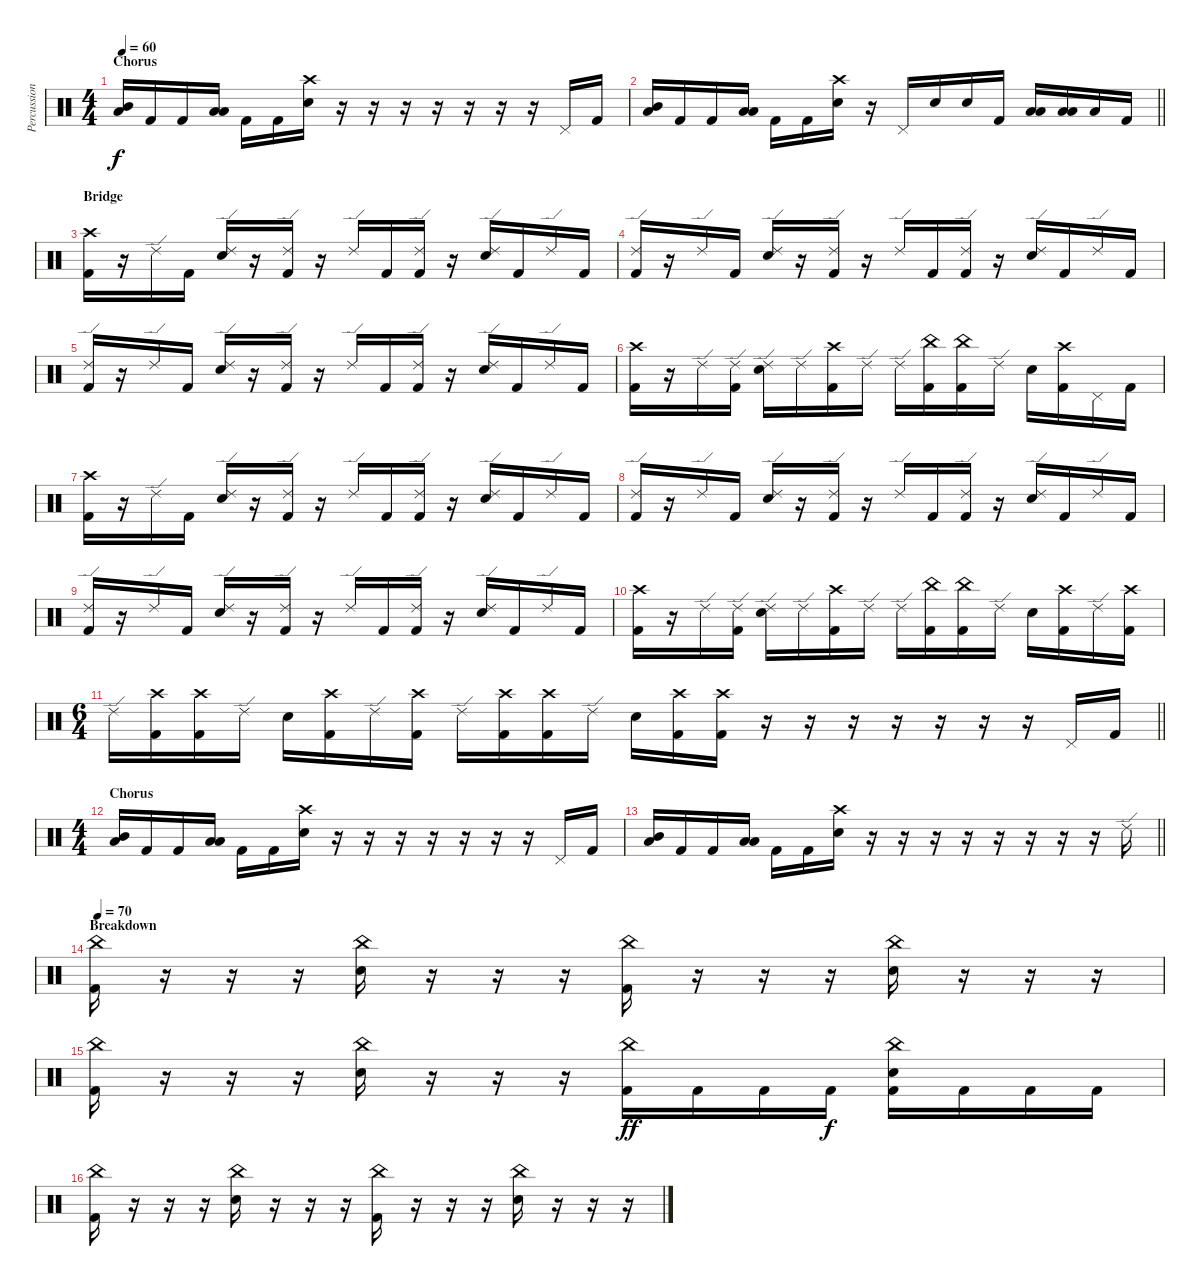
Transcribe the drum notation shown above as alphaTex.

\track ("Percussion" "Percussion") {instrument percussion}
\staff {score}
\articulation defaults
\ts (4 4)
\section ("" "Chorus")
\tempo 60
\clef neutral
\ks c
("Mid Tom (hit)" "Low Tom (hit)").16{dy f} "Kick (hit) 2".16 "Kick (hit) 2".16 ("Low Tom (hit)" "Low Floor Tom (hit)").16 "Kick (hit) 2".16 "Kick (hit) 2".16 ("Crash high (hit)" "Electric Snare (hit)").16 r.16 r.16 r.16 r.16 r.16 r.16 r.16 "Pedal Hi-Hat (hit)".16 "Kick (hit) 2".16 |
\barLineRight lightlight
("Mid Tom (hit)" "Low Tom (hit)").16 "Kick (hit) 2".16 "Kick (hit) 2".16 ("Low Tom (hit)" "Low Floor Tom (hit)").16 "Kick (hit) 2".16 "Kick (hit) 2".16 ("Crash high (hit)" "Electric Snare (hit)").16 r.16 "Pedal Hi-Hat (hit)".16 "Electric Snare (hit)".16 "Electric Snare (hit)".16 "Kick (hit) 2".16 ("Low Tom (hit)" "Low Floor Tom (hit)").16 ("Low Tom (hit)" "Low Floor Tom (hit)").16 "Low Floor Tom (hit)".16 "Kick (hit) 2".16 |
\section ("" "Bridge")
("Crash high (hit)" "Kick (hit) 2").16 r.16 "Ride (edge) 2".16 "Kick (hit) 2".16 ("Ride (edge) 2" "Electric Snare (hit)").16 r.16 ("Ride (edge) 2" "Kick (hit) 2").16 r.16 "Ride (edge) 2".16 "Kick (hit) 2".16 ("Ride (edge) 2" "Kick (hit) 2").16 r.16 ("Ride (edge) 2" "Electric Snare (hit)").16 "Kick (hit) 2".16 "Ride (edge) 2".16 "Kick (hit) 2".16 |
("Ride (edge) 2" "Kick (hit) 2").16 r.16 "Ride (edge) 2".16 "Kick (hit) 2".16 ("Ride (edge) 2" "Electric Snare (hit)").16 r.16 ("Ride (edge) 2" "Kick (hit) 2").16 r.16 "Ride (edge) 2".16 "Kick (hit) 2".16 ("Ride (edge) 2" "Kick (hit) 2").16 r.16 ("Ride (edge) 2" "Electric Snare (hit)").16 "Kick (hit) 2".16 "Ride (edge) 2".16 "Kick (hit) 2".16 |
("Ride (edge) 2" "Kick (hit) 2").16 r.16 "Ride (edge) 2".16 "Kick (hit) 2".16 ("Ride (edge) 2" "Electric Snare (hit)").16 r.16 ("Ride (edge) 2" "Kick (hit) 2").16 r.16 "Ride (edge) 2".16 "Kick (hit) 2".16 ("Ride (edge) 2" "Kick (hit) 2").16 r.16 ("Ride (edge) 2" "Electric Snare (hit)").16 "Kick (hit) 2".16 "Ride (edge) 2".16 "Kick (hit) 2".16 |
("Crash high (hit)" "Kick (hit) 2").16 r.16 "Ride (edge) 2".16 ("Ride (edge) 2" "Kick (hit) 2").16 ("Ride (edge) 2" "Electric Snare (hit)").16 "Ride (edge) 2".16 ("Crash high (hit)" "Kick (hit) 2").16 "Ride (edge) 2".16 "Ride (edge) 2".16 ("China (hit)" "Kick (hit) 2").16 ("China (hit)" "Kick (hit) 2").16 "Ride (edge) 2".16 "Electric Snare (hit)".16 ("Crash high (hit)" "Kick (hit) 2").16 "Pedal Hi-Hat (hit)".16 "Kick (hit) 2".16 |
("Crash high (hit)" "Kick (hit) 2").16 r.16 "Ride (edge) 2".16 "Kick (hit) 2".16 ("Ride (edge) 2" "Electric Snare (hit)").16 r.16 ("Ride (edge) 2" "Kick (hit) 2").16 r.16 "Ride (edge) 2".16 "Kick (hit) 2".16 ("Ride (edge) 2" "Kick (hit) 2").16 r.16 ("Ride (edge) 2" "Electric Snare (hit)").16 "Kick (hit) 2".16 "Ride (edge) 2".16 "Kick (hit) 2".16 |
("Ride (edge) 2" "Kick (hit) 2").16 r.16 "Ride (edge) 2".16 "Kick (hit) 2".16 ("Ride (edge) 2" "Electric Snare (hit)").16 r.16 ("Ride (edge) 2" "Kick (hit) 2").16 r.16 "Ride (edge) 2".16 "Kick (hit) 2".16 ("Ride (edge) 2" "Kick (hit) 2").16 r.16 ("Ride (edge) 2" "Electric Snare (hit)").16 "Kick (hit) 2".16 "Ride (edge) 2".16 "Kick (hit) 2".16 |
("Ride (edge) 2" "Kick (hit) 2").16 r.16 "Ride (edge) 2".16 "Kick (hit) 2".16 ("Ride (edge) 2" "Electric Snare (hit)").16 r.16 ("Ride (edge) 2" "Kick (hit) 2").16 r.16 "Ride (edge) 2".16 "Kick (hit) 2".16 ("Ride (edge) 2" "Kick (hit) 2").16 r.16 ("Ride (edge) 2" "Electric Snare (hit)").16 "Kick (hit) 2".16 "Ride (edge) 2".16 "Kick (hit) 2".16 |
("Crash high (hit)" "Kick (hit) 2").16 r.16 "Ride (edge) 2".16 ("Ride (edge) 2" "Kick (hit) 2").16 ("Ride (edge) 2" "Electric Snare (hit)").16 "Ride (edge) 2".16 ("Crash high (hit)" "Kick (hit) 2").16 "Ride (edge) 2".16 "Ride (edge) 2".16 ("China (hit)" "Kick (hit) 2").16 ("China (hit)" "Kick (hit) 2").16 "Ride (edge) 2".16 "Electric Snare (hit)".16 ("Crash high (hit)" "Kick (hit) 2").16 "Ride (edge) 2".16 ("Crash high (hit)" "Kick (hit) 2").16 |
\ts (6 4)
\barLineRight lightlight "Ride (edge) 2".16
("Crash high (hit)" "Kick (hit) 2").16 ("Crash high (hit)" "Kick (hit) 2").16 "Ride (edge) 2".16 "Electric Snare (hit)".16 ("Crash high (hit)" "Kick (hit) 2").16 "Ride (edge) 2".16 ("Crash high (hit)" "Kick (hit) 2").16 "Ride (edge) 2".16 ("Crash high (hit)" "Kick (hit) 2").16 ("Crash high (hit)" "Kick (hit) 2").16 "Ride (edge) 2".16 "Electric Snare (hit)".16 ("Crash high (hit)" "Kick (hit) 2").16 ("Crash high (hit)" "Kick (hit) 2").16 r.16 r.16 r.16 r.16 r.16 r.16 r.16 "Pedal Hi-Hat (hit)".16 "Kick (hit) 2".16 |
\ts (4 4)
\section ("" "Chorus")
("Mid Tom (hit)" "Low Tom (hit)").16 "Kick (hit) 2".16 "Kick (hit) 2".16 ("Low Tom (hit)" "Low Floor Tom (hit)").16 "Kick (hit) 2".16 "Kick (hit) 2".16 ("Crash high (hit)" "Electric Snare (hit)").16 r.16 r.16 r.16 r.16 r.16 r.16 r.16 "Pedal Hi-Hat (hit)".16 "Kick (hit) 2".16 |
\barLineRight lightlight
("Mid Tom (hit)" "Low Tom (hit)").16 "Kick (hit) 2".16 "Kick (hit) 2".16 ("Low Tom (hit)" "Low Floor Tom (hit)").16 "Kick (hit) 2".16 "Kick (hit) 2".16 ("Crash high (hit)" "Electric Snare (hit)").16 r.16 r.16 r.16 r.16 r.16 r.16 r.16 r.16 "Ride (edge) 2".16 |
\section ("" "Breakdown")
\tempo 70
("China (hit)" "Kick (hit) 2").16 r.16 r.16 r.16 ("China (hit)" "Electric Snare (hit)").16 r.16 r.16 r.16 ("China (hit)" "Kick (hit) 2").16 r.16 r.16 r.16 ("China (hit)" "Electric Snare (hit)").16 r.16 r.16 r.16 |
("China (hit)" "Kick (hit) 2").16 r.16 r.16 r.16 ("China (hit)" "Electric Snare (hit)").16 r.16 r.16 r.16 ("China (hit)" "Kick (hit) 2").16{dy ff} "Kick (hit) 2".16 "Kick (hit) 2".16 "Kick (hit) 2".16{dy f} ("China (hit)" "Electric Snare (hit)" "Kick (hit) 2").16 "Kick (hit) 2".16 "Kick (hit) 2".16 "Kick (hit) 2".16 |
("China (hit)" "Kick (hit) 2").16 r.16 r.16 r.16 ("China (hit)" "Electric Snare (hit)").16 r.16 r.16 r.16 ("China (hit)" "Kick (hit) 2").16 r.16 r.16 r.16 ("China (hit)" "Electric Snare (hit)").16 r.16 r.16 r.16
